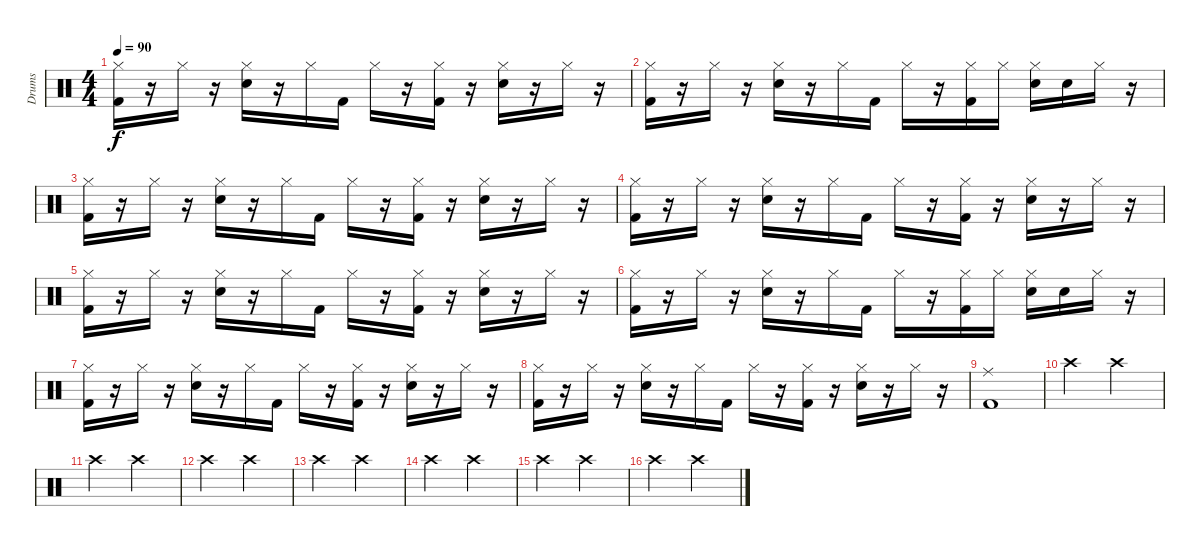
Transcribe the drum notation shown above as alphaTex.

\track ("Drums" "Drums") {instrument percussion}
\staff {score}
\articulation defaults
\ts (4 4)
\tempo 90
\clef neutral
\ks c
("Hi-Hat (closed)" "Kick (hit) 2").16{dy f} r.16 "Hi-Hat (closed)".16 r.16 ("Hi-Hat (closed)" "Electric Snare (hit)").16 r.16 "Hi-Hat (closed)".16 "Kick (hit) 2".16 "Hi-Hat (closed)".16 r.16 ("Hi-Hat (closed)" "Kick (hit) 2").16 r.16 ("Hi-Hat (closed)" "Electric Snare (hit)").16 r.16 "Hi-Hat (closed)".16 r.16 |
("Hi-Hat (closed)" "Kick (hit) 2").16 r.16 "Hi-Hat (closed)".16 r.16 ("Hi-Hat (closed)" "Electric Snare (hit)").16 r.16 "Hi-Hat (closed)".16 "Kick (hit) 2".16 "Hi-Hat (closed)".16 r.16 ("Hi-Hat (closed)" "Kick (hit) 2").16 "Hi-Hat (closed)".16 ("Hi-Hat (closed)" "Electric Snare (hit)").16 "Electric Snare (hit)".16 "Hi-Hat (closed)".16 r.16 |
("Hi-Hat (closed)" "Kick (hit) 2").16 r.16 "Hi-Hat (closed)".16 r.16 ("Hi-Hat (closed)" "Electric Snare (hit)").16 r.16 "Hi-Hat (closed)".16 "Kick (hit) 2".16 "Hi-Hat (closed)".16 r.16 ("Hi-Hat (closed)" "Kick (hit) 2").16 r.16 ("Hi-Hat (closed)" "Electric Snare (hit)").16 r.16 "Hi-Hat (closed)".16 r.16 |
("Hi-Hat (closed)" "Kick (hit) 2").16 r.16 "Hi-Hat (closed)".16 r.16 ("Hi-Hat (closed)" "Electric Snare (hit)").16 r.16 "Hi-Hat (closed)".16 "Kick (hit) 2".16 "Hi-Hat (closed)".16 r.16 ("Hi-Hat (closed)" "Kick (hit) 2").16 r.16 ("Hi-Hat (closed)" "Electric Snare (hit)").16 r.16 "Hi-Hat (closed)".16 r.16 |
("Hi-Hat (closed)" "Kick (hit) 2").16 r.16 "Hi-Hat (closed)".16 r.16 ("Hi-Hat (closed)" "Electric Snare (hit)").16 r.16 "Hi-Hat (closed)".16 "Kick (hit) 2".16 "Hi-Hat (closed)".16 r.16 ("Hi-Hat (closed)" "Kick (hit) 2").16 r.16 ("Hi-Hat (closed)" "Electric Snare (hit)").16 r.16 "Hi-Hat (closed)".16 r.16 |
("Hi-Hat (closed)" "Kick (hit) 2").16 r.16 "Hi-Hat (closed)".16 r.16 ("Hi-Hat (closed)" "Electric Snare (hit)").16 r.16 "Hi-Hat (closed)".16 "Kick (hit) 2".16 "Hi-Hat (closed)".16 r.16 ("Hi-Hat (closed)" "Kick (hit) 2").16 "Hi-Hat (closed)".16 ("Hi-Hat (closed)" "Electric Snare (hit)").16 "Electric Snare (hit)".16 "Hi-Hat (closed)".16 r.16 |
("Hi-Hat (closed)" "Kick (hit) 2").16 r.16 "Hi-Hat (closed)".16 r.16 ("Hi-Hat (closed)" "Electric Snare (hit)").16 r.16 "Hi-Hat (closed)".16 "Kick (hit) 2".16 "Hi-Hat (closed)".16 r.16 ("Hi-Hat (closed)" "Kick (hit) 2").16 r.16 ("Hi-Hat (closed)" "Electric Snare (hit)").16 r.16 "Hi-Hat (closed)".16 r.16 |
("Hi-Hat (closed)" "Kick (hit) 2").16 r.16 "Hi-Hat (closed)".16 r.16 ("Hi-Hat (closed)" "Electric Snare (hit)").16 r.16 "Hi-Hat (closed)".16 "Kick (hit) 2".16 "Hi-Hat (closed)".16 r.16 ("Hi-Hat (closed)" "Kick (hit) 2").16 r.16 ("Hi-Hat (closed)" "Electric Snare (hit)").16 r.16 "Hi-Hat (closed)".16 r.16 |
("Ride (middle)" "Kick (hit) 2").1 |
"Crash high (hit)".2{volume 4} "Crash high (hit)".2{volume 4} |
"Crash high (hit)".2{volume 4} "Crash high (hit)".2{volume 4} |
"Crash high (hit)".2{volume 4} "Crash high (hit)".2{volume 4} |
"Crash high (hit)".2{volume 4} "Crash high (hit)".2{volume 4} |
"Crash high (hit)".2{volume 4} "Crash high (hit)".2{volume 4} |
"Crash high (hit)".2{volume 4} "Crash high (hit)".2{volume 4} |
"Crash high (hit)".2{volume 4} "Crash high (hit)".2{volume 4}
